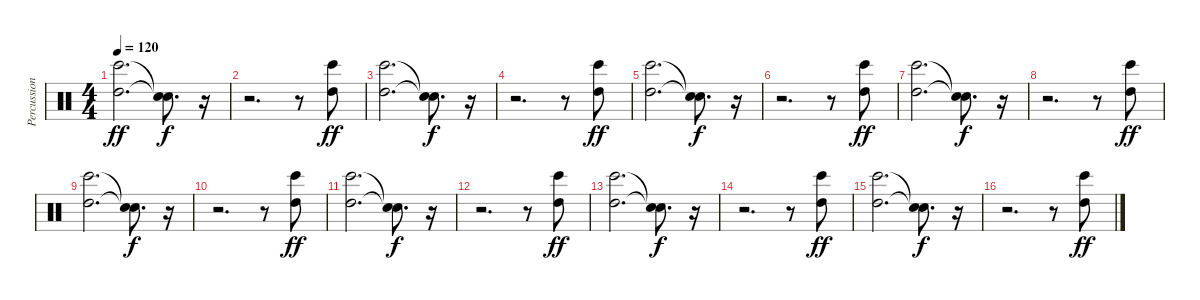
\track ("Percussions2" "Percussion") {instrument percussion}
\staff {score}
\articulation defaults
\ts (4 4)
\tempo 120
\clef neutral
\ks c
("High Tom (hit)" "Bongo High (hit)").2{d dy ff} ("Snare (hit)"{t} "Snare (hit)"{t}).8{d dy f} r.16 |
r.2{d} r.8 ("High Tom (hit)" "Bongo High (hit)").8{dy ff} |
("High Tom (hit)" "Bongo High (hit)").2{d} ("Snare (hit)"{t} "Snare (hit)"{t}).8{d dy f} r.16 |
r.2{d} r.8 ("High Tom (hit)" "Bongo High (hit)").8{dy ff} |
("High Tom (hit)" "Bongo High (hit)").2{d} ("Snare (hit)"{t} "Snare (hit)"{t}).8{d dy f} r.16 |
r.2{d} r.8 ("High Tom (hit)" "Bongo High (hit)").8{dy ff} |
("High Tom (hit)" "Bongo High (hit)").2{d} ("Snare (hit)"{t} "Snare (hit)"{t}).8{d dy f} r.16 |
r.2{d} r.8 ("High Tom (hit)" "Bongo High (hit)").8{dy ff} |
("High Tom (hit)" "Bongo High (hit)").2{d} ("Snare (hit)"{t} "Snare (hit)"{t}).8{d dy f} r.16 |
r.2{d} r.8 ("High Tom (hit)" "Bongo High (hit)").8{dy ff} |
("High Tom (hit)" "Bongo High (hit)").2{d} ("Snare (hit)"{t} "Snare (hit)"{t}).8{d dy f} r.16 |
r.2{d} r.8 ("High Tom (hit)" "Bongo High (hit)").8{dy ff} |
("High Tom (hit)" "Bongo High (hit)").2{d} ("Snare (hit)"{t} "Snare (hit)"{t}).8{d dy f} r.16 |
r.2{d} r.8 ("High Tom (hit)" "Bongo High (hit)").8{dy ff} |
("High Tom (hit)" "Bongo High (hit)").2{d} ("Snare (hit)"{t} "Snare (hit)"{t}).8{d dy f} r.16 |
r.2{d} r.8 ("High Tom (hit)" "Bongo High (hit)").8{dy ff}
